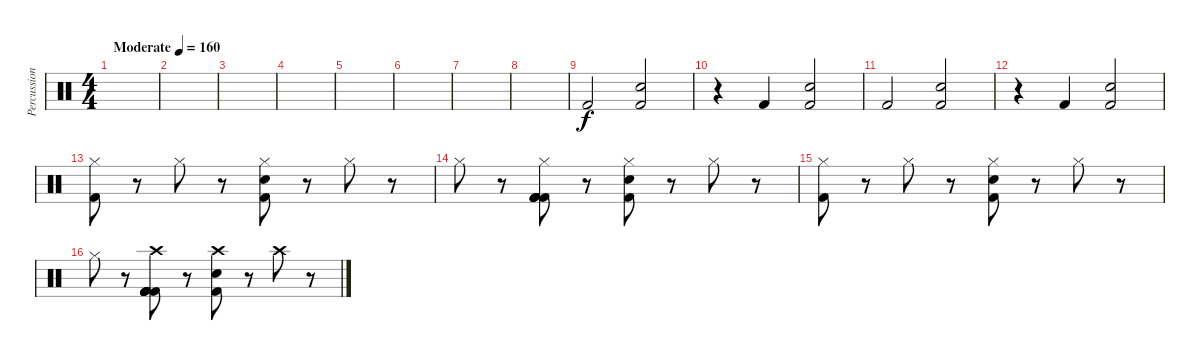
\track ("Percussion" "Percussion") {instrument percussion}
\staff {score}
\articulation defaults
\ts (4 4)
\tempo (160 "Moderate")
\clef neutral
\ks c
|
|
|
|
|
|
|
|
"Kick (hit) 2".2 ("Snare (hit) 2" "Kick (hit) 2").2 |
r.4 "Kick (hit) 2".4 ("Kick (hit) 2" "Snare (hit) 2").2 |
"Kick (hit) 2".2 ("Snare (hit) 2" "Kick (hit) 2").2 |
r.4 "Kick (hit) 2".4 ("Kick (hit) 2" "Snare (hit) 2").2 |
("Hi-Hat (closed)" "Kick (hit) 2").8 r.8 "Hi-Hat (closed)".8 r.8 ("Hi-Hat (closed)" "Kick (hit) 2" "Snare (hit) 2").8 r.8 "Hi-Hat (closed)".8 r.8 |
"Hi-Hat (closed)".8 r.8 ("Kick (hit) 2" "Kick (hit) 2" "Kick (hit) 2" "Hi-Hat (closed)" "Kick (hit) 2" "Kick (hit) 2").8 r.8 ("Hi-Hat (closed)" "Kick (hit) 2" "Snare (hit) 2").8 r.8 "Hi-Hat (closed)".8 r.8 |
("Hi-Hat (closed)" "Kick (hit) 2").8 r.8 "Hi-Hat (closed)".8 r.8 ("Hi-Hat (closed)" "Kick (hit) 2" "Snare (hit) 2").8 r.8 "Hi-Hat (closed)".8 r.8 |
"Hi-Hat (closed)".8 r.8 ("Kick (hit) 2" "Kick (hit) 2" "Kick (hit) 2" "Crash high (hit)" "Kick (hit) 2" "Kick (hit) 2").8 r.8 ("Crash high (hit)" "Kick (hit) 2" "Snare (hit) 2").8 r.8 "Crash high (hit)".8 r.8
